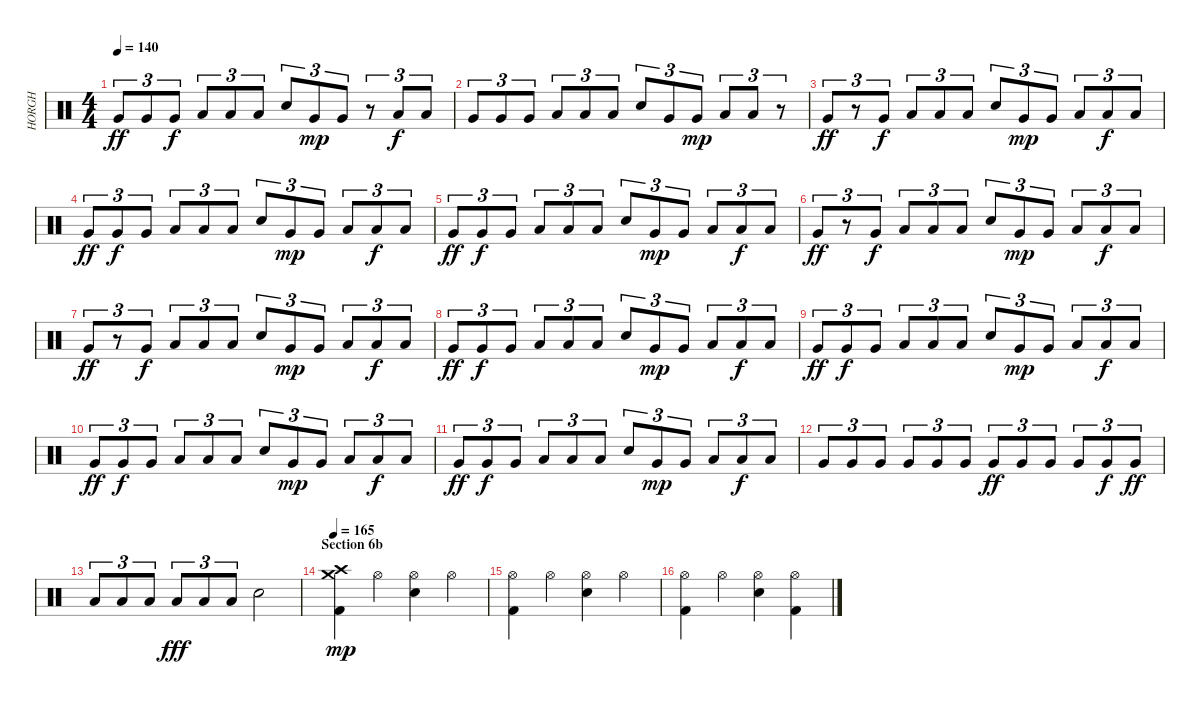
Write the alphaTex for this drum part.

\track ("HORGH" "HORGH") {instrument percussion}
\staff {score}
\articulation defaults
\ts (4 4)
\tempo 140
\clef neutral
\ks c "Very Low Tom (hit)".8{tu (3 2) dy ff} "Very Low Tom (hit)".8{tu (3 2)} "Very Low Tom (hit)".8{tu (3 2) dy f} "Low Floor Tom (hit)".8{tu (3 2)} "Low Floor Tom (hit)".8{tu (3 2)} "Low Floor Tom (hit)".8{tu (3 2)} "Electric Snare (hit)".8{tu (3 2)} "Very Low Tom (hit)".8{tu (3 2) dy mp} "Very Low Tom (hit)".8{tu (3 2)}
r.8{tu (3 2)} "Low Floor Tom (hit)".8{tu (3 2) dy f} "Low Floor Tom (hit)".8{tu (3 2)} |
"Very Low Tom (hit)".8{tu (3 2)} "Very Low Tom (hit)".8{tu (3 2)} "Very Low Tom (hit)".8{tu (3 2)} "Low Floor Tom (hit)".8{tu (3 2)} "Low Floor Tom (hit)".8{tu (3 2)} "Low Floor Tom (hit)".8{tu (3 2)} "Electric Snare (hit)".8{tu (3 2)} "Very Low Tom (hit)".8{tu (3 2)} "Very Low Tom (hit)".8{tu (3 2) dy mp} "Low Floor Tom (hit)".8{tu (3 2)} "Low Floor Tom (hit)".8{tu (3 2)} r.8{tu (3 2)} |
"Very Low Tom (hit)".8{tu (3 2) dy ff} r.8{tu (3 2)} "Very Low Tom (hit)".8{tu (3 2) dy f} "Low Floor Tom (hit)".8{tu (3 2)} "Low Floor Tom (hit)".8{tu (3 2)} "Low Floor Tom (hit)".8{tu (3 2)} "Electric Snare (hit)".8{tu (3 2)} "Very Low Tom (hit)".8{tu (3 2) dy mp} "Very Low Tom (hit)".8{tu (3 2)} "Low Floor Tom (hit)".8{tu (3 2)} "Low Floor Tom (hit)".8{tu (3 2) dy f} "Low Floor Tom (hit)".8{tu (3 2)} |
"Very Low Tom (hit)".8{tu (3 2) dy ff} "Very Low Tom (hit)".8{tu (3 2) dy f} "Very Low Tom (hit)".8{tu (3 2)} "Low Floor Tom (hit)".8{tu (3 2)} "Low Floor Tom (hit)".8{tu (3 2)} "Low Floor Tom (hit)".8{tu (3 2)} "Electric Snare (hit)".8{tu (3 2)} "Very Low Tom (hit)".8{tu (3 2) dy mp} "Very Low Tom (hit)".8{tu (3 2)} "Low Floor Tom (hit)".8{tu (3 2)} "Low Floor Tom (hit)".8{tu (3 2) dy f} "Low Floor Tom (hit)".8{tu (3 2)} |
"Very Low Tom (hit)".8{tu (3 2) dy ff} "Very Low Tom (hit)".8{tu (3 2) dy f} "Very Low Tom (hit)".8{tu (3 2)} "Low Floor Tom (hit)".8{tu (3 2)} "Low Floor Tom (hit)".8{tu (3 2)} "Low Floor Tom (hit)".8{tu (3 2)} "Electric Snare (hit)".8{tu (3 2)} "Very Low Tom (hit)".8{tu (3 2) dy mp} "Very Low Tom (hit)".8{tu (3 2)} "Low Floor Tom (hit)".8{tu (3 2)} "Low Floor Tom (hit)".8{tu (3 2) dy f} "Low Floor Tom (hit)".8{tu (3 2)} |
"Very Low Tom (hit)".8{tu (3 2) dy ff} r.8{tu (3 2)} "Very Low Tom (hit)".8{tu (3 2) dy f} "Low Floor Tom (hit)".8{tu (3 2)} "Low Floor Tom (hit)".8{tu (3 2)} "Low Floor Tom (hit)".8{tu (3 2)} "Electric Snare (hit)".8{tu (3 2)} "Very Low Tom (hit)".8{tu (3 2) dy mp} "Very Low Tom (hit)".8{tu (3 2)} "Low Floor Tom (hit)".8{tu (3 2)} "Low Floor Tom (hit)".8{tu (3 2) dy f} "Low Floor Tom (hit)".8{tu (3 2)} |
"Very Low Tom (hit)".8{tu (3 2) dy ff} r.8{tu (3 2)} "Very Low Tom (hit)".8{tu (3 2) dy f} "Low Floor Tom (hit)".8{tu (3 2)} "Low Floor Tom (hit)".8{tu (3 2)} "Low Floor Tom (hit)".8{tu (3 2)} "Electric Snare (hit)".8{tu (3 2)} "Very Low Tom (hit)".8{tu (3 2) dy mp} "Very Low Tom (hit)".8{tu (3 2)} "Low Floor Tom (hit)".8{tu (3 2)} "Low Floor Tom (hit)".8{tu (3 2) dy f} "Low Floor Tom (hit)".8{tu (3 2)} |
"Very Low Tom (hit)".8{tu (3 2) dy ff} "Very Low Tom (hit)".8{tu (3 2) dy f} "Very Low Tom (hit)".8{tu (3 2)} "Low Floor Tom (hit)".8{tu (3 2)} "Low Floor Tom (hit)".8{tu (3 2)} "Low Floor Tom (hit)".8{tu (3 2)} "Electric Snare (hit)".8{tu (3 2)} "Very Low Tom (hit)".8{tu (3 2) dy mp} "Very Low Tom (hit)".8{tu (3 2)} "Low Floor Tom (hit)".8{tu (3 2)} "Low Floor Tom (hit)".8{tu (3 2) dy f} "Low Floor Tom (hit)".8{tu (3 2)} |
"Very Low Tom (hit)".8{tu (3 2) dy ff} "Very Low Tom (hit)".8{tu (3 2) dy f} "Very Low Tom (hit)".8{tu (3 2)} "Low Floor Tom (hit)".8{tu (3 2)} "Low Floor Tom (hit)".8{tu (3 2)} "Low Floor Tom (hit)".8{tu (3 2)} "Electric Snare (hit)".8{tu (3 2)} "Very Low Tom (hit)".8{tu (3 2) dy mp} "Very Low Tom (hit)".8{tu (3 2)} "Low Floor Tom (hit)".8{tu (3 2)} "Low Floor Tom (hit)".8{tu (3 2) dy f} "Low Floor Tom (hit)".8{tu (3 2)} |
"Very Low Tom (hit)".8{tu (3 2) dy ff} "Very Low Tom (hit)".8{tu (3 2) dy f} "Very Low Tom (hit)".8{tu (3 2)} "Low Floor Tom (hit)".8{tu (3 2)} "Low Floor Tom (hit)".8{tu (3 2)} "Low Floor Tom (hit)".8{tu (3 2)} "Electric Snare (hit)".8{tu (3 2)} "Very Low Tom (hit)".8{tu (3 2) dy mp} "Very Low Tom (hit)".8{tu (3 2)} "Low Floor Tom (hit)".8{tu (3 2)} "Low Floor Tom (hit)".8{tu (3 2) dy f} "Low Floor Tom (hit)".8{tu (3 2)} |
"Very Low Tom (hit)".8{tu (3 2) dy ff} "Very Low Tom (hit)".8{tu (3 2) dy f} "Very Low Tom (hit)".8{tu (3 2)} "Low Floor Tom (hit)".8{tu (3 2)} "Low Floor Tom (hit)".8{tu (3 2)} "Low Floor Tom (hit)".8{tu (3 2)} "Electric Snare (hit)".8{tu (3 2)} "Very Low Tom (hit)".8{tu (3 2) dy mp} "Very Low Tom (hit)".8{tu (3 2)} "Low Floor Tom (hit)".8{tu (3 2)} "Low Floor Tom (hit)".8{tu (3 2) dy f} "Low Floor Tom (hit)".8{tu (3 2)} |
"Very Low Tom (hit)".8{tu (3 2)} "Very Low Tom (hit)".8{tu (3 2)} "Very Low Tom (hit)".8{tu (3 2)} "Very Low Tom (hit)".8{tu (3 2)} "Very Low Tom (hit)".8{tu (3 2)} "Very Low Tom (hit)".8{tu (3 2)} "Very Low Tom (hit)".8{tu (3 2) dy ff} "Very Low Tom (hit)".8{tu (3 2)} "Very Low Tom (hit)".8{tu (3 2)} "Very Low Tom (hit)".8{tu (3 2)} "Very Low Tom (hit)".8{tu (3 2) dy f} "Very Low Tom (hit)".8{tu (3 2) dy ff} |
"Low Floor Tom (hit)".8{tu (3 2)} "Low Floor Tom (hit)".8{tu (3 2)} "Low Floor Tom (hit)".8{tu (3 2)} "Low Floor Tom (hit)".8{tu (3 2) dy fff} "Low Floor Tom (hit)".8{tu (3 2)} "Low Floor Tom (hit)".8{tu (3 2)} "Electric Snare (hit)".2 |
\section ("" "Section 6b")
\tempo 165
("Crash medium (hit)" "Crash high (hit)" "Kick (hit) 2").4{dy mp volume 10} "Hi-Hat (open)".4 ("Hi-Hat (open)" "Electric Snare (hit)").4 "Hi-Hat (open)".4 |
("Hi-Hat (open)" "Kick (hit) 2").4 "Hi-Hat (open)".4 ("Hi-Hat (open)" "Electric Snare (hit)").4 "Hi-Hat (open)".4 |
("Hi-Hat (open)" "Kick (hit) 2").4 "Hi-Hat (open)".4 ("Hi-Hat (open)" "Electric Snare (hit)").4 ("Hi-Hat (open)" "Kick (hit) 2").4
